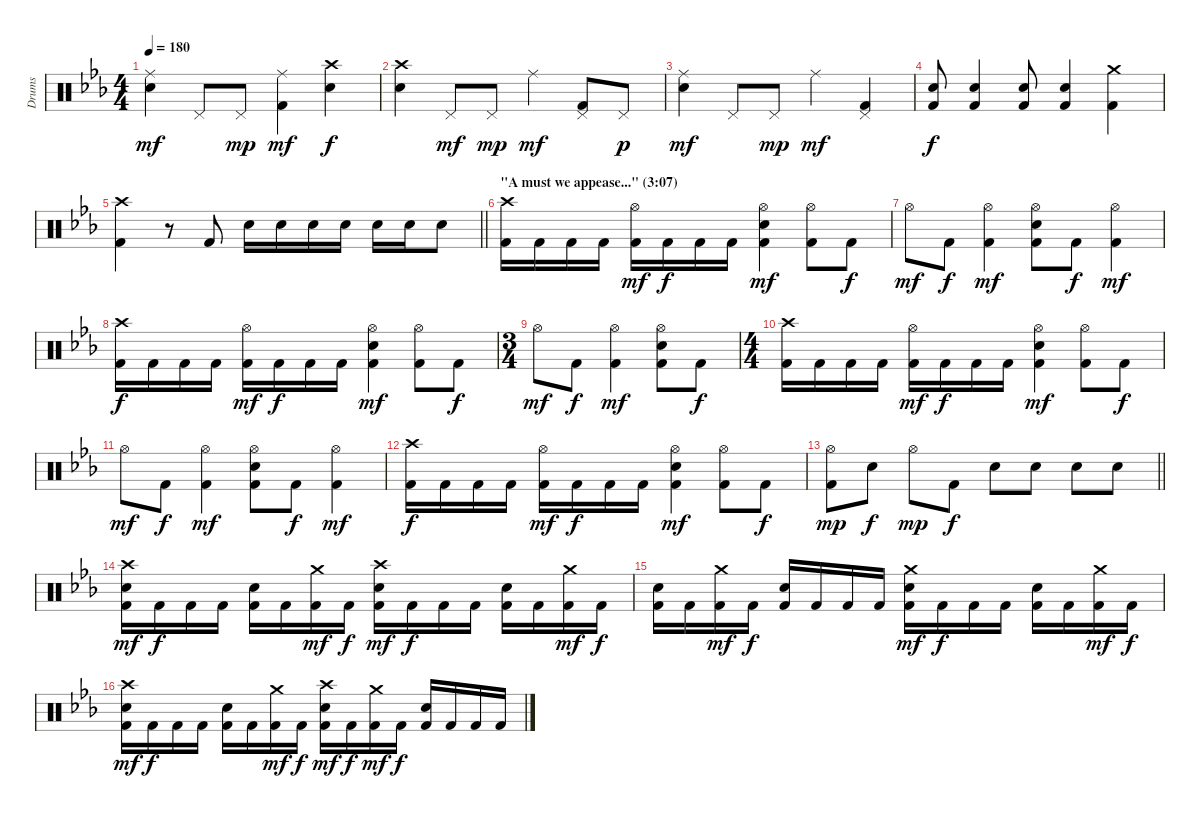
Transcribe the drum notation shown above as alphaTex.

\track ("Drums" "Drums") {instrument percussion}
\staff {score}
\articulation defaults
\ts (4 4)
\tempo 180
\clef neutral
\ks eb
("Ride (middle)" "Electric Snare (hit)").4{dy mf} "Pedal Hi-Hat (hit)".8 "Pedal Hi-Hat (hit)".8{dy mp} ("Ride (middle)" "Kick (hit) 2").4{dy mf} ("Crash high (hit)" "Electric Snare (hit)").4{dy f} |
("Crash high (hit)" "Electric Snare (hit)").4 "Pedal Hi-Hat (hit)".8{dy mf} "Pedal Hi-Hat (hit)".8{dy mp} "Ride (middle)".4{dy mf} ("Pedal Hi-Hat (hit)" "Kick (hit) 2").8 "Pedal Hi-Hat (hit)".8{dy p} |
("Ride (middle)" "Electric Snare (hit)").4{dy mf} "Pedal Hi-Hat (hit)".8 "Pedal Hi-Hat (hit)".8{dy mp} "Ride (middle)".4{dy mf} ("Pedal Hi-Hat (hit)" "Kick (hit) 2").4 |
("Electric Snare (hit)" "Kick (hit) 2").8{dy f} ("Electric Snare (hit)" "Kick (hit) 2").4 ("Electric Snare (hit)" "Kick (hit) 2").8 ("Electric Snare (hit)" "Kick (hit) 2").4 ("Crash medium (hit)" "Kick (hit) 2").4 |
\barLineRight lightlight
("Crash high (hit)" "Kick (hit) 2").4 r.8 "Kick (hit) 2".8 "Electric Snare (hit)".16 "Electric Snare (hit)".16 "Electric Snare (hit)".16 "Electric Snare (hit)".16 "Electric Snare (hit)".16 "Electric Snare (hit)".16 "Electric Snare (hit)".8 |
\section ("" "\"A must we appease...\" (3:07)")
("Crash high (hit)" "Kick (hit) 2").16 "Kick (hit) 2".16 "Kick (hit) 2".16 "Kick (hit) 2".16 ("Hi-Hat (open)" "Kick (hit) 2").16{dy mf} "Kick (hit) 2".16{dy f} "Kick (hit) 2".16 "Kick (hit) 2".16 ("Hi-Hat (open)" "Electric Snare (hit)" "Kick (hit) 2").4{dy mf} ("Hi-Hat (open)" "Kick (hit) 2").8 "Kick (hit) 2".8{dy f} |
"Hi-Hat (open)".8{dy mf} "Kick (hit) 2".8{dy f} ("Hi-Hat (open)" "Kick (hit) 2").4{dy mf} ("Hi-Hat (open)" "Electric Snare (hit)" "Kick (hit) 2").8 "Kick (hit) 2".8{dy f} ("Hi-Hat (open)" "Kick (hit) 2").4{dy mf} |
("Crash high (hit)" "Kick (hit) 2").16{dy f} "Kick (hit) 2".16 "Kick (hit) 2".16 "Kick (hit) 2".16 ("Hi-Hat (open)" "Kick (hit) 2").16{dy mf} "Kick (hit) 2".16{dy f} "Kick (hit) 2".16 "Kick (hit) 2".16 ("Hi-Hat (open)" "Electric Snare (hit)" "Kick (hit) 2").4{dy mf} ("Hi-Hat (open)" "Kick (hit) 2").8 "Kick (hit) 2".8{dy f} |
\ts (3 4)
"Hi-Hat (open)".8{dy mf} "Kick (hit) 2".8{dy f} ("Hi-Hat (open)" "Kick (hit) 2").4{dy mf} ("Hi-Hat (open)" "Electric Snare (hit)" "Kick (hit) 2").8 "Kick (hit) 2".8{dy f} |
\ts (4 4)
("Crash high (hit)" "Kick (hit) 2").16 "Kick (hit) 2".16 "Kick (hit) 2".16 "Kick (hit) 2".16 ("Hi-Hat (open)" "Kick (hit) 2").16{dy mf} "Kick (hit) 2".16{dy f} "Kick (hit) 2".16 "Kick (hit) 2".16 ("Hi-Hat (open)" "Electric Snare (hit)" "Kick (hit) 2").4{dy mf} ("Hi-Hat (open)" "Kick (hit) 2").8 "Kick (hit) 2".8{dy f} |
"Hi-Hat (open)".8{dy mf} "Kick (hit) 2".8{dy f} ("Hi-Hat (open)" "Kick (hit) 2").4{dy mf} ("Hi-Hat (open)" "Electric Snare (hit)" "Kick (hit) 2").8 "Kick (hit) 2".8{dy f} ("Hi-Hat (open)" "Kick (hit) 2").4{dy mf} |
("Crash high (hit)" "Kick (hit) 2").16{dy f} "Kick (hit) 2".16 "Kick (hit) 2".16 "Kick (hit) 2".16 ("Hi-Hat (open)" "Kick (hit) 2").16{dy mf} "Kick (hit) 2".16{dy f} "Kick (hit) 2".16 "Kick (hit) 2".16 ("Hi-Hat (open)" "Electric Snare (hit)" "Kick (hit) 2").4{dy mf} ("Hi-Hat (open)" "Kick (hit) 2").8 "Kick (hit) 2".8{dy f} |
\barLineRight lightlight
("Hi-Hat (open)" "Kick (hit) 2").8{dy mp} "Electric Snare (hit)".8{dy f} "Hi-Hat (open)".8{dy mp} "Kick (hit) 2".8{dy f} "Electric Snare (hit)".8 "Electric Snare (hit)".8 "Electric Snare (hit)".8 "Electric Snare (hit)".8 |
("Crash high (hit)" "Electric Snare (hit)" "Kick (hit) 2").16{dy mf} "Kick (hit) 2".16{dy f} "Kick (hit) 2".16 "Kick (hit) 2".16 ("Electric Snare (hit)" "Kick (hit) 2").16 "Kick (hit) 2".16 ("Crash medium (hit)" "Kick (hit) 2").16{dy mf} "Kick (hit) 2".16{dy f} ("Crash high (hit)" "Electric Snare (hit)" "Kick (hit) 2").16{dy mf} "Kick (hit) 2".16{dy f} "Kick (hit) 2".16 "Kick (hit) 2".16 ("Electric Snare (hit)" "Kick (hit) 2").16 "Kick (hit) 2".16 ("Crash medium (hit)" "Kick (hit) 2").16{dy mf} "Kick (hit) 2".16{dy f} |
("Electric Snare (hit)" "Kick (hit) 2").16 "Kick (hit) 2".16 ("Crash medium (hit)" "Kick (hit) 2").16{dy mf} "Kick (hit) 2".16{dy f} ("Electric Snare (hit)" "Kick (hit) 2").16 "Kick (hit) 2".16 "Kick (hit) 2".16 "Kick (hit) 2".16 ("Crash medium (hit)" "Electric Snare (hit)" "Kick (hit) 2").16{dy mf} "Kick (hit) 2".16{dy f} "Kick (hit) 2".16 "Kick (hit) 2".16 ("Electric Snare (hit)" "Kick (hit) 2").16 "Kick (hit) 2".16 ("Crash medium (hit)" "Kick (hit) 2").16{dy mf} "Kick (hit) 2".16{dy f} |
("Crash high (hit)" "Electric Snare (hit)" "Kick (hit) 2").16{dy mf} "Kick (hit) 2".16{dy f} "Kick (hit) 2".16 "Kick (hit) 2".16 ("Electric Snare (hit)" "Kick (hit) 2").16 "Kick (hit) 2".16 ("Crash medium (hit)" "Kick (hit) 2").16{dy mf} "Kick (hit) 2".16{dy f} ("Crash high (hit)" "Electric Snare (hit)" "Kick (hit) 2").16{dy mf} "Kick (hit) 2".16{dy f} ("Crash medium (hit)" "Kick (hit) 2").16{dy mf} "Kick (hit) 2".16{dy f} ("Electric Snare (hit)" "Kick (hit) 2").16 "Kick (hit) 2".16 "Kick (hit) 2".16 "Kick (hit) 2".16
